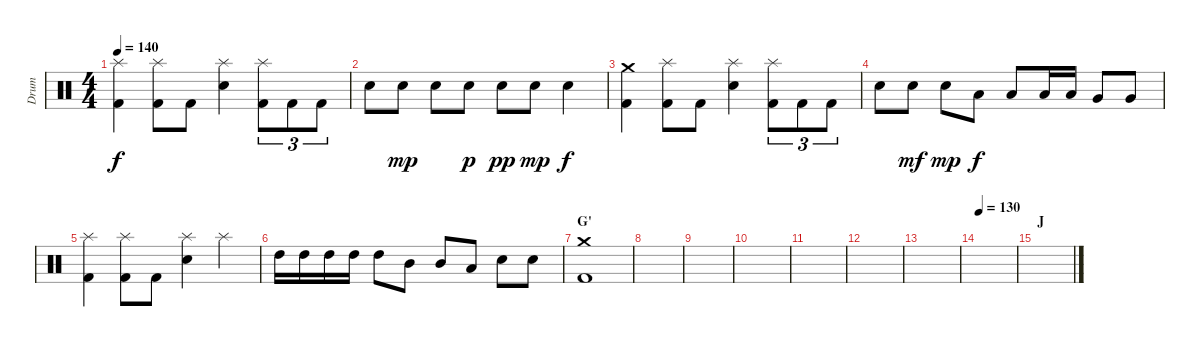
\track ("Drum" "Drum") {instrument percussion}
\staff {score}
\articulation defaults
\ts (4 4)
\tempo 140
\clef neutral
\ks c
("Splash (hit)" "Kick (hit) 2").4{dy f} ("Splash (hit)" "Kick (hit) 2").8 "Kick (hit) 2".8 ("Splash (hit)" "Electric Snare (hit)").4 ("Splash (hit)" "Kick (hit) 2").8{tu (3 2)} "Kick (hit) 2".8{tu (3 2)} "Kick (hit) 2".8{tu (3 2)} |
"Electric Snare (hit)".8 "Electric Snare (hit)".8{dy mp} "Electric Snare (hit)".8 "Electric Snare (hit)".8{dy p} "Electric Snare (hit)".8{dy pp} "Electric Snare (hit)".8{dy mp} "Electric Snare (hit)".4{dy f} |
("Crash medium (hit)" "Kick (hit) 2").4 ("Splash (hit)" "Kick (hit) 2").8 "Kick (hit) 2".8 ("Splash (hit)" "Electric Snare (hit)").4 ("Splash (hit)" "Kick (hit) 2").8{tu (3 2)} "Kick (hit) 2".8{tu (3 2)} "Kick (hit) 2".8{tu (3 2)} |
"Electric Snare (hit)".8 "Electric Snare (hit)".8{dy mf} "Electric Snare (hit)".8{dy mp} "Low Tom (hit)".8{dy f} "Low Tom (hit)".8 "Low Tom (hit)".16 "Low Tom (hit)".16 "Very Low Tom (hit)".8 "Very Low Tom (hit)".8 |
("Splash (hit)" "Kick (hit) 2").4 ("Splash (hit)" "Kick (hit) 2").8 "Kick (hit) 2".8 ("Splash (hit)" "Electric Snare (hit)").4 "Splash (hit)".4 |
"High Tom (hit)".16 "High Tom (hit)".16 "High Tom (hit)".16 "High Tom (hit)".16 "High Tom (hit)".8 "Mid Tom (hit)".8 "Mid Tom (hit)".8 "Low Tom (hit)".8 "Snare (hit) 2".8 "Snare (hit) 2".8 |
\section ("" "G'")
("Crash medium (hit)" "Kick (hit) 2").1 |
|
|
|
|
|
|
\tempo 130
|
\section ("" "J")
